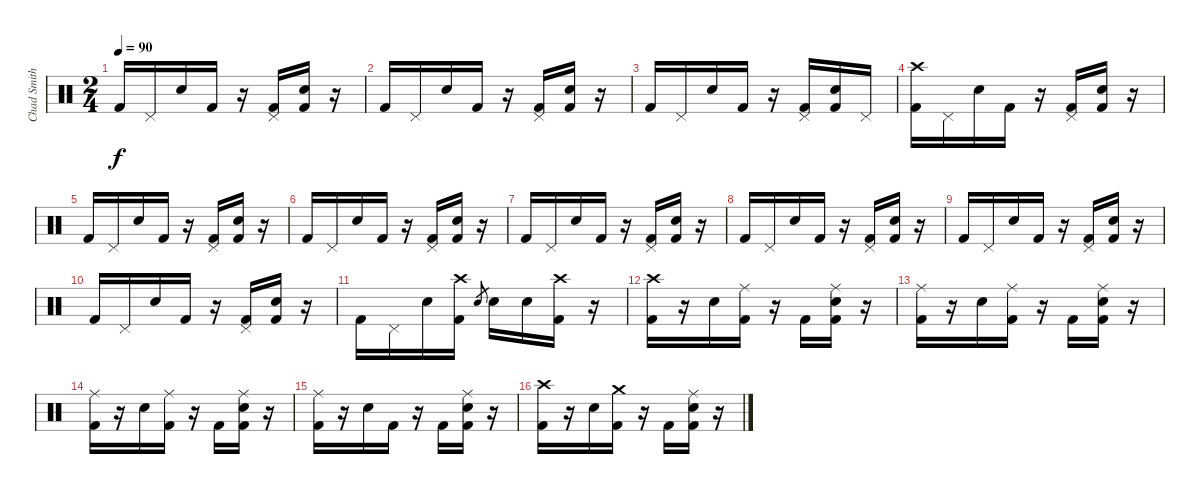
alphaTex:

\track ("Chad Smith" "Chad Smith") {instrument percussion}
\staff {score}
\articulation defaults
\ts (2 4)
\tempo 90
\clef neutral
\ks c "Kick (hit) 2".16{dy f} "Pedal Hi-Hat (hit)".16 "Electric Snare (hit)".16 "Kick (hit) 2".16
r.16 ("Pedal Hi-Hat (hit)" "Kick (hit) 2").16 ("Electric Snare (hit)" "Kick (hit) 2").16 r.16 |
"Kick (hit) 2".16 "Pedal Hi-Hat (hit)".16 "Electric Snare (hit)".16 "Kick (hit) 2".16 r.16 ("Pedal Hi-Hat (hit)" "Kick (hit) 2").16 ("Electric Snare (hit)" "Kick (hit) 2").16 r.16 |
"Kick (hit) 2".16 "Pedal Hi-Hat (hit)".16 "Electric Snare (hit)".16 "Kick (hit) 2".16 r.16 ("Pedal Hi-Hat (hit)" "Kick (hit) 2").16 ("Electric Snare (hit)" "Kick (hit) 2").16 "Pedal Hi-Hat (hit)".16 |
("Crash high (hit)" "Kick (hit) 2").16 "Pedal Hi-Hat (hit)".16 "Electric Snare (hit)".16 "Kick (hit) 2".16 r.16 ("Pedal Hi-Hat (hit)" "Kick (hit) 2").16 ("Electric Snare (hit)" "Kick (hit) 2").16 r.16 |
"Kick (hit) 2".16 "Pedal Hi-Hat (hit)".16 "Electric Snare (hit)".16 "Kick (hit) 2".16 r.16 ("Pedal Hi-Hat (hit)" "Kick (hit) 2").16 ("Electric Snare (hit)" "Kick (hit) 2").16 r.16 |
"Kick (hit) 2".16 "Pedal Hi-Hat (hit)".16 "Electric Snare (hit)".16 "Kick (hit) 2".16 r.16 ("Pedal Hi-Hat (hit)" "Kick (hit) 2").16 ("Electric Snare (hit)" "Kick (hit) 2").16 r.16 |
"Kick (hit) 2".16 "Pedal Hi-Hat (hit)".16 "Electric Snare (hit)".16 "Kick (hit) 2".16 r.16 ("Pedal Hi-Hat (hit)" "Kick (hit) 2").16 ("Electric Snare (hit)" "Kick (hit) 2").16 r.16 |
"Kick (hit) 2".16 "Pedal Hi-Hat (hit)".16 "Electric Snare (hit)".16 "Kick (hit) 2".16 r.16 ("Pedal Hi-Hat (hit)" "Kick (hit) 2").16 ("Electric Snare (hit)" "Kick (hit) 2").16 r.16 |
"Kick (hit) 2".16 "Pedal Hi-Hat (hit)".16 "Electric Snare (hit)".16 "Kick (hit) 2".16 r.16 ("Pedal Hi-Hat (hit)" "Kick (hit) 2").16 ("Electric Snare (hit)" "Kick (hit) 2").16 r.16 |
"Kick (hit) 2".16 "Pedal Hi-Hat (hit)".16 "Electric Snare (hit)".16 "Kick (hit) 2".16 r.16 ("Pedal Hi-Hat (hit)" "Kick (hit) 2").16 ("Electric Snare (hit)" "Kick (hit) 2").16 r.16 |
"Kick (hit) 2".16 "Pedal Hi-Hat (hit)".16 "Electric Snare (hit)".16 ("Crash high (hit)" "Kick (hit) 2").16 "Electric Snare (hit)".8{gr} "Electric Snare (hit)".16 "Electric Snare (hit)".16 ("Crash high (hit)" "Kick (hit) 2").16 r.16 |
("Crash high (hit)" "Kick (hit) 2").16 r.16 "Electric Snare (hit)".16 ("Ride (middle)" "Kick (hit) 2").16 r.16 "Kick (hit) 2".16 ("Ride (middle)" "Electric Snare (hit)" "Kick (hit) 2").16 r.16 |
("Ride (middle)" "Kick (hit) 2").16 r.16 "Electric Snare (hit)".16 ("Ride (middle)" "Kick (hit) 2").16 r.16 "Kick (hit) 2".16 ("Ride (middle)" "Electric Snare (hit)" "Kick (hit) 2").16 r.16 |
("Ride (middle)" "Kick (hit) 2").16 r.16 "Electric Snare (hit)".16 ("Ride (middle)" "Kick (hit) 2").16 r.16 "Kick (hit) 2".16 ("Ride (middle)" "Electric Snare (hit)" "Kick (hit) 2").16 r.16 |
("Ride (middle)" "Kick (hit) 2").16 r.16 "Electric Snare (hit)".16 "Kick (hit) 2".16 r.16 "Kick (hit) 2".16 ("Ride (middle)" "Electric Snare (hit)" "Kick (hit) 2").16 r.16 |
("Crash high (hit)" "Kick (hit) 2").16 r.16 "Electric Snare (hit)".16 ("Crash medium (hit)" "Kick (hit) 2").16 r.16 "Kick (hit) 2".16 ("Ride (middle)" "Electric Snare (hit)" "Kick (hit) 2").16 r.16
